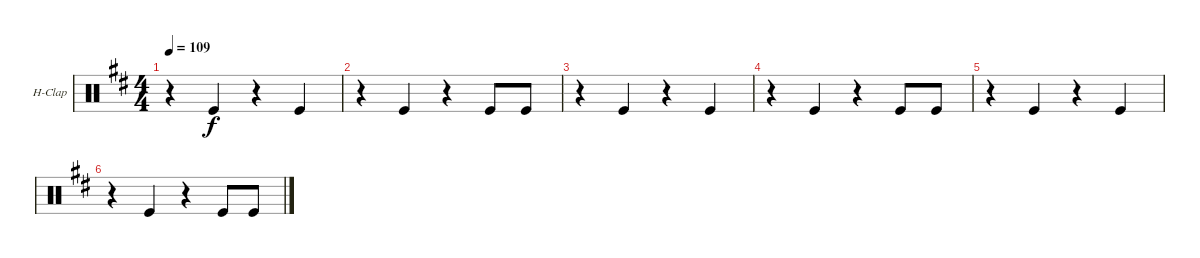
\bracketExtendMode groupsimilarinstruments
\firstSystemTrackNameOrientation horizontal
\otherSystemsTrackNameOrientation horizontal
\track ("Hand Clap" "H-Clap") {instrument percussion}
\staff {score}
\articulation defaults
\ts (4 4)
\tempo 109
\clef neutral
\scale
0.333333
\ks d
r.4{dy f} "Kick (hit)".4 r.4 "Kick (hit)".4 |
\scale
0.333333 r.4 "Kick (hit)".4 r.4 "Kick (hit)".8 "Kick (hit)".8 |
\scale
0.333333 r.4 "Kick (hit)".4 r.4 "Kick (hit)".4 |
\scale
0.333333 r.4 "Kick (hit)".4 r.4 "Kick (hit)".8 "Kick (hit)".8 |
\scale
0.333333 r.4 "Kick (hit)".4 r.4 "Kick (hit)".4 |
\scale
0.333333 r.4 "Kick (hit)".4 r.4 "Kick (hit)".8 "Kick (hit)".8 |
\scale
0.333333 |
\scale
0.333333 |
\scale
0.333333
